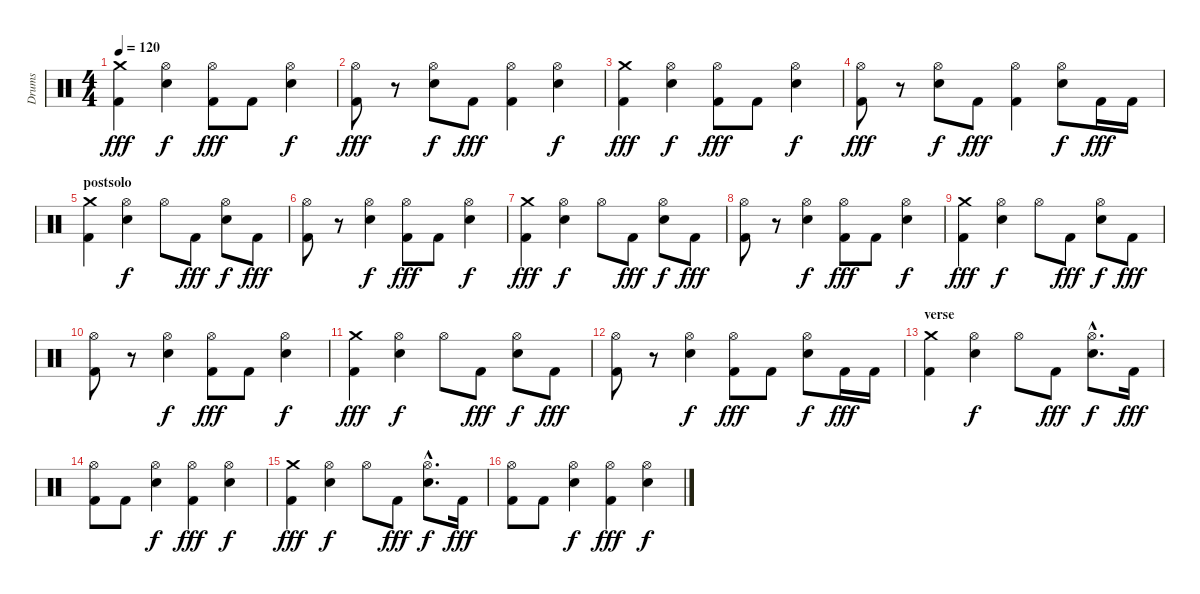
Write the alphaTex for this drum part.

\track ("Drums" "Drums") {instrument percussion}
\staff {score}
\articulation defaults
\ts (4 4)
\tempo 120
\clef neutral
\ks c
("Crash medium (hit)" "Kick (hit) 2").4{dy fff} ("Hi-Hat (open)" "Electric Snare (hit)").4{dy f} ("Hi-Hat (open)" "Kick (hit) 2").8{dy fff} "Kick (hit) 2".8 ("Hi-Hat (open)" "Electric Snare (hit)").4{dy f} |
("Hi-Hat (open)" "Kick (hit) 2").8{dy fff} r.8 ("Hi-Hat (open)" "Electric Snare (hit)").8{dy f} "Kick (hit) 2".8{dy fff} ("Hi-Hat (open)" "Kick (hit) 2").4 ("Hi-Hat (open)" "Electric Snare (hit)").4{dy f} |
("Crash medium (hit)" "Kick (hit) 2").4{dy fff} ("Hi-Hat (open)" "Electric Snare (hit)").4{dy f} ("Hi-Hat (open)" "Kick (hit) 2").8{dy fff} "Kick (hit) 2".8 ("Hi-Hat (open)" "Electric Snare (hit)").4{dy f} |
("Hi-Hat (open)" "Kick (hit) 2").8{dy fff} r.8 ("Hi-Hat (open)" "Electric Snare (hit)").8{dy f} "Kick (hit) 2".8{dy fff} ("Hi-Hat (open)" "Kick (hit) 2").4 ("Hi-Hat (open)" "Electric Snare (hit)").8{dy f} "Kick (hit) 2".16{dy fff} "Kick (hit) 2".16 |
\section ("" "postsolo")
("Crash medium (hit)" "Kick (hit) 2").4 ("Hi-Hat (open)" "Electric Snare (hit)").4{dy f} "Hi-Hat (open)".8 "Kick (hit) 2".8{dy fff} ("Hi-Hat (open)" "Electric Snare (hit)").8{dy f} "Kick (hit) 2".8{dy fff} |
("Hi-Hat (open)" "Kick (hit) 2").8 r.8 ("Hi-Hat (open)" "Electric Snare (hit)").4{dy f} ("Hi-Hat (open)" "Kick (hit) 2").8{dy fff} "Kick (hit) 2".8 ("Hi-Hat (open)" "Electric Snare (hit)").4{dy f} |
("Crash medium (hit)" "Kick (hit) 2").4{dy fff} ("Hi-Hat (open)" "Electric Snare (hit)").4{dy f} "Hi-Hat (open)".8 "Kick (hit) 2".8{dy fff} ("Hi-Hat (open)" "Electric Snare (hit)").8{dy f} "Kick (hit) 2".8{dy fff} |
("Hi-Hat (open)" "Kick (hit) 2").8 r.8 ("Hi-Hat (open)" "Electric Snare (hit)").4{dy f} ("Hi-Hat (open)" "Kick (hit) 2").8{dy fff} "Kick (hit) 2".8 ("Hi-Hat (open)" "Electric Snare (hit)").4{dy f} |
("Crash medium (hit)" "Kick (hit) 2").4{dy fff} ("Hi-Hat (open)" "Electric Snare (hit)").4{dy f} "Hi-Hat (open)".8 "Kick (hit) 2".8{dy fff} ("Hi-Hat (open)" "Electric Snare (hit)").8{dy f} "Kick (hit) 2".8{dy fff} |
("Hi-Hat (open)" "Kick (hit) 2").8 r.8 ("Hi-Hat (open)" "Electric Snare (hit)").4{dy f} ("Hi-Hat (open)" "Kick (hit) 2").8{dy fff} "Kick (hit) 2".8 ("Hi-Hat (open)" "Electric Snare (hit)").4{dy f} |
("Crash medium (hit)" "Kick (hit) 2").4{dy fff} ("Hi-Hat (open)" "Electric Snare (hit)").4{dy f} "Hi-Hat (open)".8 "Kick (hit) 2".8{dy fff} ("Hi-Hat (open)" "Electric Snare (hit)").8{dy f} "Kick (hit) 2".8{dy fff} |
("Hi-Hat (open)" "Kick (hit) 2").8 r.8 ("Hi-Hat (open)" "Electric Snare (hit)").4{dy f} ("Hi-Hat (open)" "Kick (hit) 2").8{dy fff} "Kick (hit) 2".8 ("Hi-Hat (open)" "Electric Snare (hit)").8{dy f} "Kick (hit) 2".16{dy fff} "Kick (hit) 2".16 |
\section ("" "verse")
("Crash medium (hit)" "Kick (hit) 2").4 ("Hi-Hat (open)" "Electric Snare (hit)").4{dy f} "Hi-Hat (open)".8 "Kick (hit) 2".8{dy fff} ("Hi-Hat (open)"{hac} "Electric Snare (hit)"{hac}).8{d dy f} "Kick (hit) 2".16{dy fff} |
("Hi-Hat (open)" "Kick (hit) 2").8 "Kick (hit) 2".8 ("Hi-Hat (open)" "Electric Snare (hit)").4{dy f} ("Hi-Hat (open)" "Kick (hit) 2").4{dy fff} ("Hi-Hat (open)" "Electric Snare (hit)").4{dy f} |
("Crash medium (hit)" "Kick (hit) 2").4{dy fff} ("Hi-Hat (open)" "Electric Snare (hit)").4{dy f} "Hi-Hat (open)".8 "Kick (hit) 2".8{dy fff} ("Hi-Hat (open)"{hac} "Electric Snare (hit)"{hac}).8{d dy f} "Kick (hit) 2".16{dy fff} |
("Hi-Hat (open)" "Kick (hit) 2").8 "Kick (hit) 2".8 ("Hi-Hat (open)" "Electric Snare (hit)").4{dy f} ("Hi-Hat (open)" "Kick (hit) 2").4{dy fff} ("Hi-Hat (open)" "Electric Snare (hit)").4{dy f}
